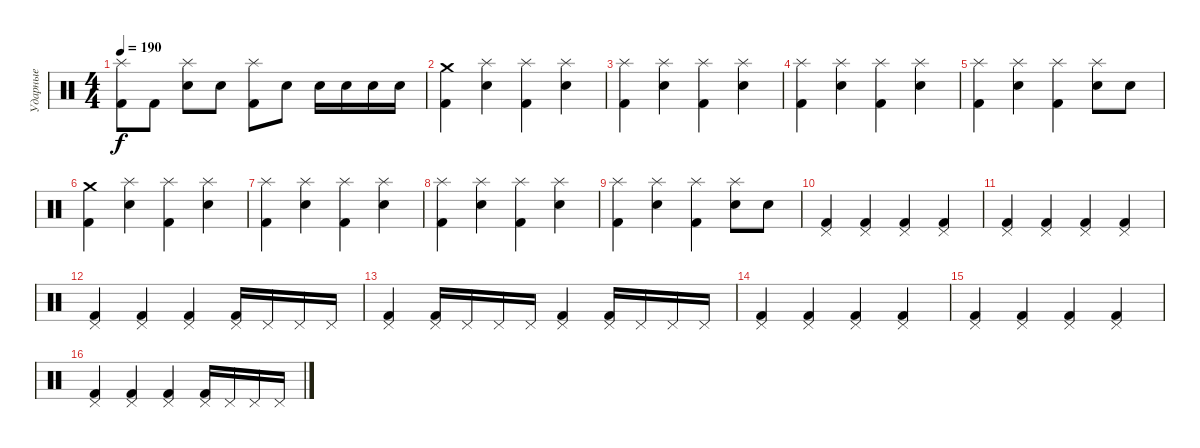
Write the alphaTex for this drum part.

\track ("Ударные" "Ударные") {instrument percussion}
\staff {score}
\articulation defaults
\ts (4 4)
\tempo 190
\clef neutral
\ks c
("Splash (hit)" "Kick (hit) 2").8{dy f} "Kick (hit) 2".8 ("Splash (hit)" "Snare (hit) 2").8 "Snare (hit) 2".8 ("Splash (hit)" "Kick (hit) 2").8 "Snare (hit) 2".8 "Snare (hit) 2".16 "Snare (hit) 2".16 "Snare (hit) 2".16 "Snare (hit) 2".16 |
("Crash medium (hit)" "Kick (hit) 2").4 ("Splash (hit)" "Snare (hit) 2").4 ("Splash (hit)" "Kick (hit) 2").4 ("Splash (hit)" "Snare (hit) 2").4 |
("Splash (hit)" "Kick (hit) 2").4 ("Splash (hit)" "Snare (hit) 2").4 ("Splash (hit)" "Kick (hit) 2").4 ("Splash (hit)" "Snare (hit) 2").4 |
("Splash (hit)" "Kick (hit) 2").4 ("Splash (hit)" "Snare (hit) 2").4 ("Splash (hit)" "Kick (hit) 2").4 ("Splash (hit)" "Snare (hit) 2").4 |
("Splash (hit)" "Kick (hit) 2").4 ("Splash (hit)" "Snare (hit) 2").4 ("Splash (hit)" "Kick (hit) 2").4 ("Splash (hit)" "Snare (hit) 2").8 "Snare (hit) 2".8 |
("Crash medium (hit)" "Kick (hit) 2").4 ("Splash (hit)" "Snare (hit) 2").4 ("Splash (hit)" "Kick (hit) 2").4 ("Splash (hit)" "Snare (hit) 2").4 |
("Splash (hit)" "Kick (hit) 2").4 ("Splash (hit)" "Snare (hit) 2").4 ("Splash (hit)" "Kick (hit) 2").4 ("Splash (hit)" "Snare (hit) 2").4 |
("Splash (hit)" "Kick (hit) 2").4 ("Splash (hit)" "Snare (hit) 2").4 ("Splash (hit)" "Kick (hit) 2").4 ("Splash (hit)" "Snare (hit) 2").4 |
("Splash (hit)" "Kick (hit) 2").4 ("Splash (hit)" "Snare (hit) 2").4 ("Splash (hit)" "Kick (hit) 2").4 ("Splash (hit)" "Snare (hit) 2").8 "Snare (hit) 2".8 |
("Pedal Hi-Hat (hit)" "Kick (hit) 2").4 ("Pedal Hi-Hat (hit)" "Kick (hit) 2").4 ("Pedal Hi-Hat (hit)" "Kick (hit) 2").4 ("Pedal Hi-Hat (hit)" "Kick (hit) 2").4 |
("Pedal Hi-Hat (hit)" "Kick (hit) 2").4 ("Pedal Hi-Hat (hit)" "Kick (hit) 2").4 ("Pedal Hi-Hat (hit)" "Kick (hit) 2").4 ("Pedal Hi-Hat (hit)" "Kick (hit) 2").4 |
("Pedal Hi-Hat (hit)" "Kick (hit) 2").4 ("Pedal Hi-Hat (hit)" "Kick (hit) 2").4 ("Pedal Hi-Hat (hit)" "Kick (hit) 2").4 ("Pedal Hi-Hat (hit)" "Kick (hit) 2").16 "Pedal Hi-Hat (hit)".16 "Pedal Hi-Hat (hit)".16 "Pedal Hi-Hat (hit)".16 |
("Pedal Hi-Hat (hit)" "Kick (hit) 2").4 ("Pedal Hi-Hat (hit)" "Kick (hit) 2").16 "Pedal Hi-Hat (hit)".16 "Pedal Hi-Hat (hit)".16 "Pedal Hi-Hat (hit)".16 ("Pedal Hi-Hat (hit)" "Kick (hit) 2").4 ("Pedal Hi-Hat (hit)" "Kick (hit) 2").16 "Pedal Hi-Hat (hit)".16 "Pedal Hi-Hat (hit)".16 "Pedal Hi-Hat (hit)".16 |
("Pedal Hi-Hat (hit)" "Kick (hit) 2").4 ("Pedal Hi-Hat (hit)" "Kick (hit) 2").4 ("Pedal Hi-Hat (hit)" "Kick (hit) 2").4 ("Pedal Hi-Hat (hit)" "Kick (hit) 2").4 |
("Pedal Hi-Hat (hit)" "Kick (hit) 2").4 ("Pedal Hi-Hat (hit)" "Kick (hit) 2").4 ("Pedal Hi-Hat (hit)" "Kick (hit) 2").4 ("Pedal Hi-Hat (hit)" "Kick (hit) 2").4 |
("Pedal Hi-Hat (hit)" "Kick (hit) 2").4 ("Pedal Hi-Hat (hit)" "Kick (hit) 2").4 ("Pedal Hi-Hat (hit)" "Kick (hit) 2").4 ("Pedal Hi-Hat (hit)" "Kick (hit) 2").16 "Pedal Hi-Hat (hit)".16 "Pedal Hi-Hat (hit)".16 "Pedal Hi-Hat (hit)".16
